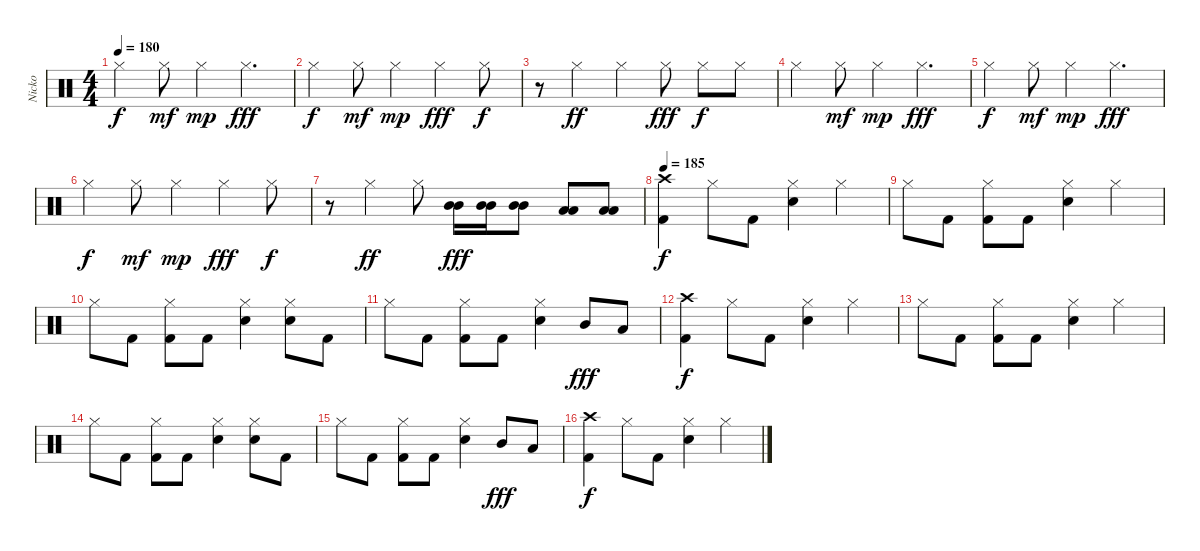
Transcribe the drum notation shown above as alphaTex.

\track ("Nicko" "Nicko") {instrument percussion}
\staff {score}
\articulation defaults
\ts (4 4)
\tempo 180
\clef neutral
\ks c "Hi-Hat (closed)".4{dy f} "Hi-Hat (closed)".8{dy mf} "Hi-Hat (closed)".4{dy mp} "Hi-Hat (closed)".4{d dy fff}
|
"Hi-Hat (closed)".4{dy f} "Hi-Hat (closed)".8{dy mf} "Hi-Hat (closed)".4{dy mp} "Hi-Hat (closed)".4{dy fff} "Hi-Hat (closed)".8{dy f} |
r.8 "Hi-Hat (closed)".4{dy ff} "Hi-Hat (closed)".4 "Hi-Hat (closed)".8{dy fff} "Hi-Hat (closed)".8{dy f} "Hi-Hat (closed)".8 |
"Hi-Hat (closed)".4 "Hi-Hat (closed)".8{dy mf} "Hi-Hat (closed)".4{dy mp} "Hi-Hat (closed)".4{d dy fff} |
"Hi-Hat (closed)".4{dy f} "Hi-Hat (closed)".8{dy mf} "Hi-Hat (closed)".4{dy mp} "Hi-Hat (closed)".4{d dy fff} |
"Hi-Hat (closed)".4{dy f} "Hi-Hat (closed)".8{dy mf} "Hi-Hat (closed)".4{dy mp} "Hi-Hat (closed)".4{dy fff} "Hi-Hat (closed)".8{dy f} |
r.8 "Hi-Hat (closed)".4{dy ff} "Hi-Hat (closed)".8 ("Mid Tom (hit)" "Mid Tom (hit)").16{dy fff} ("Mid Tom (hit)" "Mid Tom (hit)").16 ("Mid Tom (hit)" "Mid Tom (hit)").8 ("Low Tom (hit)" "Low Tom (hit)").8 ("Low Tom (hit)" "Low Tom (hit)").8 |
\tempo 185
("Crash high (hit)" "Kick (hit) 2").4{dy f} "Hi-Hat (closed)".8 "Kick (hit) 2".8 ("Hi-Hat (closed)" "Snare (hit) 2").4 "Hi-Hat (closed)".4 |
"Hi-Hat (closed)".8 "Kick (hit) 2".8 ("Hi-Hat (closed)" "Kick (hit) 2").8 "Kick (hit) 2".8 ("Hi-Hat (closed)" "Snare (hit) 2").4 "Hi-Hat (closed)".4 |
"Hi-Hat (closed)".8 "Kick (hit) 2".8 ("Hi-Hat (closed)" "Kick (hit) 2").8 "Kick (hit) 2".8 ("Hi-Hat (closed)" "Snare (hit) 2").4 ("Hi-Hat (closed)" "Snare (hit) 2").8 "Kick (hit) 2".8 |
"Hi-Hat (closed)".8 "Kick (hit) 2".8 ("Hi-Hat (closed)" "Kick (hit) 2").8 "Kick (hit) 2".8 ("Hi-Hat (closed)" "Snare (hit) 2").4 "Mid Tom (hit)".8{dy fff} "Low Tom (hit)".8 |
("Crash high (hit)" "Kick (hit) 2").4{dy f} "Hi-Hat (closed)".8 "Kick (hit) 2".8 ("Hi-Hat (closed)" "Snare (hit) 2").4 "Hi-Hat (closed)".4 |
"Hi-Hat (closed)".8 "Kick (hit) 2".8 ("Hi-Hat (closed)" "Kick (hit) 2").8 "Kick (hit) 2".8 ("Hi-Hat (closed)" "Snare (hit) 2").4 "Hi-Hat (closed)".4 |
"Hi-Hat (closed)".8 "Kick (hit) 2".8 ("Hi-Hat (closed)" "Kick (hit) 2").8 "Kick (hit) 2".8 ("Hi-Hat (closed)" "Snare (hit) 2").4 ("Hi-Hat (closed)" "Snare (hit) 2").8 "Kick (hit) 2".8 |
"Hi-Hat (closed)".8 "Kick (hit) 2".8 ("Hi-Hat (closed)" "Kick (hit) 2").8 "Kick (hit) 2".8 ("Hi-Hat (closed)" "Snare (hit) 2").4 "Mid Tom (hit)".8{dy fff} "Low Tom (hit)".8 |
("Crash high (hit)" "Kick (hit) 2").4{dy f} "Hi-Hat (closed)".8 "Kick (hit) 2".8 ("Hi-Hat (closed)" "Snare (hit) 2").4 "Hi-Hat (closed)".4
